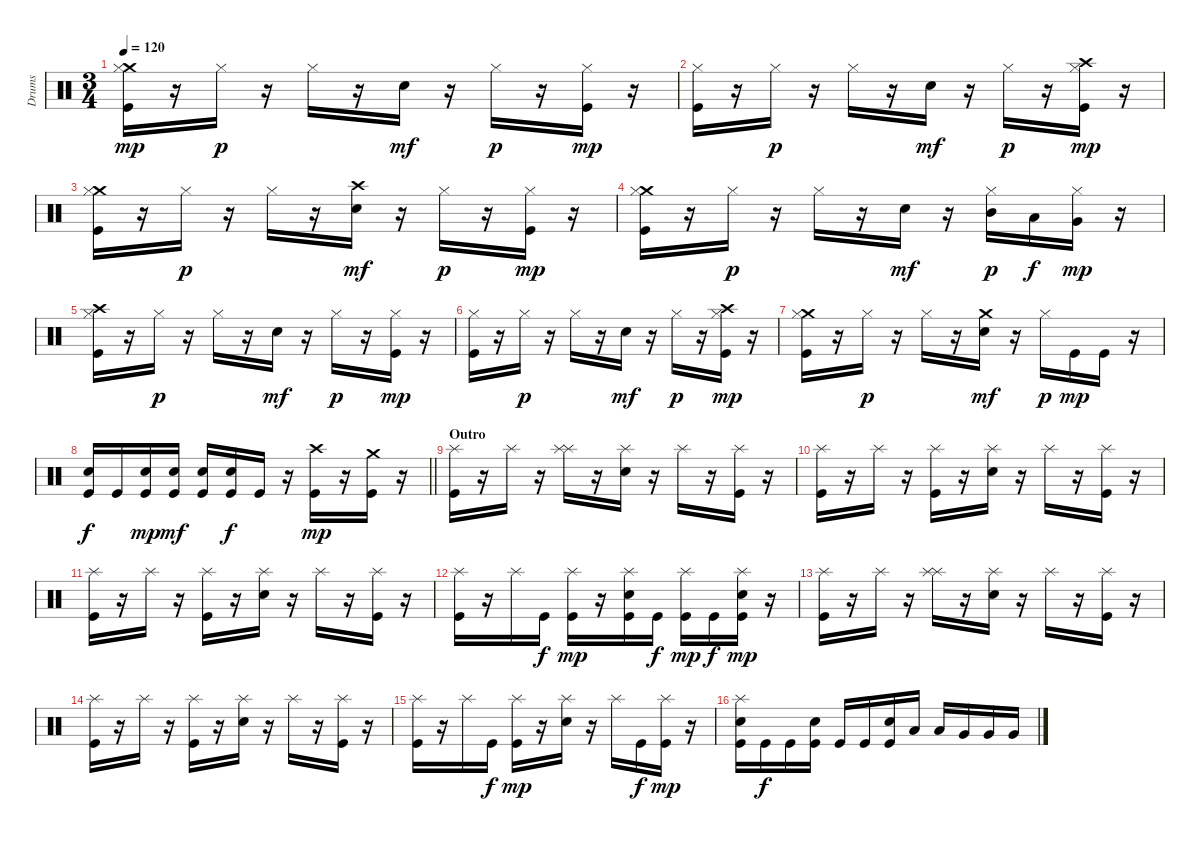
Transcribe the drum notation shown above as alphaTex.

\track ("Drums" "Drums") {instrument percussion}
\staff {score}
\articulation defaults
\ts (3 4)
\tempo 120
\clef neutral
\ks c
("Kick (hit)" "Crash medium (hit)" "Hi-Hat (closed)").16{dy mp} r.16 "Hi-Hat (closed)".16{dy p} r.16 "Hi-Hat (closed)".16 r.16 "Snare (hit) 2".16{dy mf} r.16 "Hi-Hat (closed)".16{dy p} r.16 ("Kick (hit)" "Hi-Hat (closed)").16{dy mp} r.16 |
("Kick (hit)" "Hi-Hat (closed)").16 r.16 "Hi-Hat (closed)".16{dy p} r.16 "Hi-Hat (closed)".16 r.16 "Snare (hit) 2".16{dy mf} r.16 "Hi-Hat (closed)".16{dy p} r.16 ("Kick (hit)" "Crash high (hit)" "Hi-Hat (closed)").16{dy mp} r.16 |
("Kick (hit)" "Crash medium (hit)" "Hi-Hat (closed)").16 r.16 "Hi-Hat (closed)".16{dy p} r.16 "Hi-Hat (closed)".16 r.16 ("Crash high (hit)" "Snare (hit) 2").16{dy mf} r.16 "Hi-Hat (closed)".16{dy p} r.16 ("Kick (hit)" "Hi-Hat (closed)").16{dy mp} r.16 |
("Kick (hit)" "Crash medium (hit)" "Hi-Hat (closed)").16 r.16 "Hi-Hat (closed)".16{dy p} r.16 "Hi-Hat (closed)".16 r.16 "Snare (hit) 2".16{dy mf} r.16 ("Mid Tom (hit)" "Hi-Hat (closed)").16{dy p} "Low Tom (hit)".16{dy f} ("Very Low Tom (hit)" "Hi-Hat (closed)").16{dy mp} r.16 |
("Kick (hit)" "Crash high (hit)" "Hi-Hat (closed)").16 r.16 "Hi-Hat (closed)".16{dy p} r.16 "Hi-Hat (closed)".16 r.16 "Snare (hit) 2".16{dy mf} r.16 "Hi-Hat (closed)".16{dy p} r.16 ("Kick (hit)" "Hi-Hat (closed)").16{dy mp} r.16 |
("Kick (hit)" "Hi-Hat (closed)").16 r.16 "Hi-Hat (closed)".16{dy p} r.16 "Hi-Hat (closed)".16 r.16 "Snare (hit) 2".16{dy mf} r.16 "Hi-Hat (closed)".16{dy p} r.16 ("Kick (hit)" "Crash high (hit)" "Hi-Hat (closed)").16{dy mp} r.16 |
("Kick (hit)" "Crash medium (hit)" "Hi-Hat (closed)").16 r.16 "Hi-Hat (closed)".16{dy p} r.16 "Hi-Hat (closed)".16 r.16 ("Crash medium (hit)" "Snare (hit) 2").16{dy mf} r.16 "Hi-Hat (closed)".16{dy p} "Kick (hit)".16{dy mp} "Kick (hit)".16 r.16 |
\barLineRight lightlight
("Kick (hit)" "Snare (hit) 2").16{dy f} "Kick (hit)".16 ("Kick (hit)" "Snare (hit) 2").16{dy mp} ("Kick (hit)" "Snare (hit) 2").16{dy mf} ("Kick (hit)" "Snare (hit) 2").16 ("Kick (hit)" "Snare (hit) 2").16{dy f} "Kick (hit)".16 r.16 ("Kick (hit)" "Crash high (hit)").16{dy mp} r.16 ("Kick (hit)" "Crash medium (hit)").16 r.16 |
\section ("" "Outro")
("Kick (hit)" "Splash (hit)").16 r.16 "Splash (hit)".16 r.16 ("Splash (hit)" "Splash (hit)").16 r.16 ("Splash (hit)" "Snare (hit) 2").16 r.16 "Splash (hit)".16 r.16 ("Kick (hit)" "Splash (hit)").16 r.16 |
("Kick (hit)" "Splash (hit)").16 r.16 "Splash (hit)".16 r.16 ("Kick (hit)" "Splash (hit)").16 r.16 ("Splash (hit)" "Snare (hit) 2").16 r.16 "Splash (hit)".16 r.16 ("Kick (hit)" "Splash (hit)").16 r.16 |
("Kick (hit)" "Splash (hit)").16 r.16 "Splash (hit)".16 r.16 ("Kick (hit)" "Splash (hit)").16 r.16 ("Splash (hit)" "Snare (hit) 2").16 r.16 "Splash (hit)".16 r.16 ("Kick (hit)" "Splash (hit)").16 r.16 |
("Kick (hit)" "Splash (hit)").16 r.16 "Splash (hit)".16 "Kick (hit)".16{dy f} ("Kick (hit)" "Splash (hit)").16{dy mp} r.16 ("Kick (hit)" "Splash (hit)" "Snare (hit) 2").16 "Kick (hit)".16{dy f} ("Kick (hit)" "Splash (hit)").16{dy mp} "Kick (hit)".16{dy f} ("Kick (hit)" "Splash (hit)" "Snare (hit) 2").16{dy mp} r.16 |
("Kick (hit)" "Splash (hit)").16 r.16 "Splash (hit)".16 r.16 ("Splash (hit)" "Splash (hit)").16 r.16 ("Splash (hit)" "Snare (hit) 2").16 r.16 "Splash (hit)".16 r.16 ("Kick (hit)" "Splash (hit)").16 r.16 |
("Kick (hit)" "Splash (hit)").16 r.16 "Splash (hit)".16 r.16 ("Kick (hit)" "Splash (hit)").16 r.16 ("Splash (hit)" "Snare (hit) 2").16 r.16 "Splash (hit)".16 r.16 ("Kick (hit)" "Splash (hit)").16 r.16 |
("Kick (hit)" "Splash (hit)").16 r.16 "Splash (hit)".16 "Kick (hit)".16{dy f} ("Kick (hit)" "Splash (hit)").16{dy mp} r.16 ("Splash (hit)" "Snare (hit) 2").16 r.16 "Splash (hit)".16 "Kick (hit)".16{dy f} ("Kick (hit)" "Splash (hit)").16{dy mp} r.16 |
("Kick (hit)" "Splash (hit)" "Snare (hit) 2").16 "Kick (hit)".16{dy f} "Kick (hit)".16 ("Kick (hit)" "Snare (hit) 2").16 "Kick (hit)".16 "Kick (hit)".16 ("Kick (hit)" "Snare (hit) 2").16 "Low Tom (hit)".16 "Low Tom (hit)".16 "Very Low Tom (hit)".16 "Very Low Tom (hit)".16 "Very Low Tom (hit)".16
